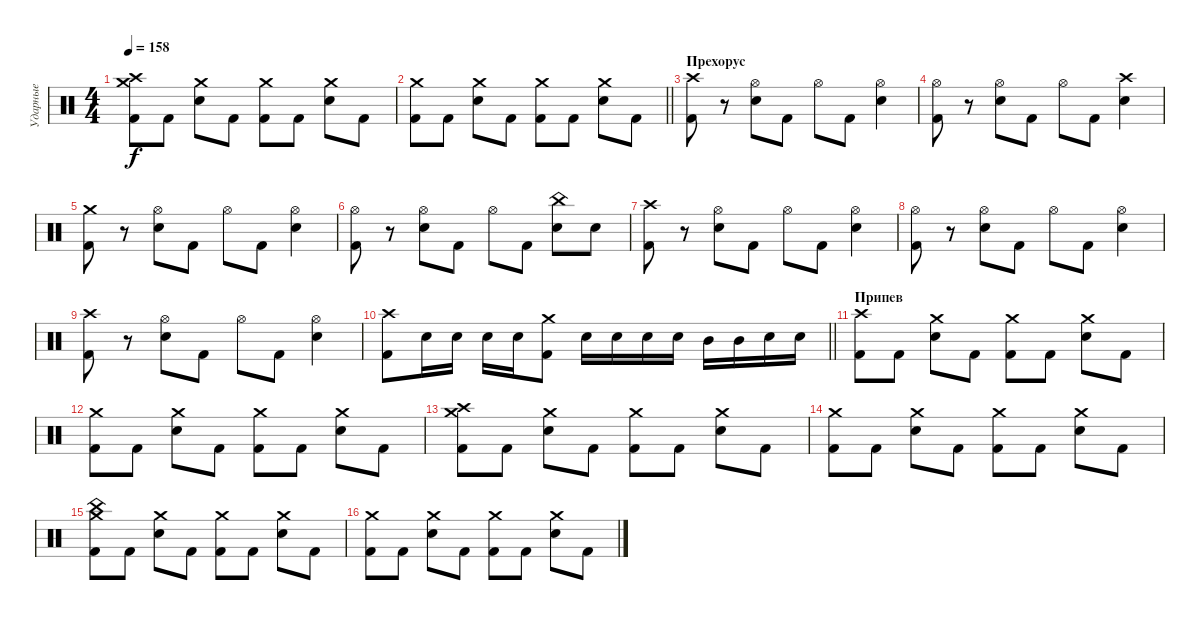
\track ("Ударные" "Ударные") {instrument percussion}
\staff {score}
\articulation defaults
\ts (4 4)
\tempo 158
\clef neutral
\ks c
("Crash medium (hit)" "Crash high (hit)" "Kick (hit) 2").8{dy f} "Kick (hit) 2".8 ("Crash medium (hit)" "Electric Snare (hit)").8 "Kick (hit) 2".8 ("Crash medium (hit)" "Kick (hit) 2").8 "Kick (hit) 2".8 ("Crash medium (hit)" "Electric Snare (hit)").8 "Kick (hit) 2".8 |
\barLineRight lightlight
("Crash medium (hit)" "Kick (hit) 2").8 "Kick (hit) 2".8 ("Crash medium (hit)" "Electric Snare (hit)").8 "Kick (hit) 2".8 ("Crash medium (hit)" "Kick (hit) 2").8 "Kick (hit) 2".8 ("Crash medium (hit)" "Electric Snare (hit)").8 "Kick (hit) 2".8 |
\section ("" "Прехорус")
("Crash high (hit)" "Kick (hit) 2").8 r.8 ("Hi-Hat (open)" "Electric Snare (hit)").8 "Kick (hit) 2".8 "Hi-Hat (open)".8 "Kick (hit) 2".8 ("Hi-Hat (open)" "Electric Snare (hit)").4 |
("Hi-Hat (open)" "Kick (hit) 2").8 r.8 ("Hi-Hat (open)" "Electric Snare (hit)").8 "Kick (hit) 2".8 "Hi-Hat (open)".8 "Kick (hit) 2".8 ("Crash high (hit)" "Electric Snare (hit)").4 |
("Crash medium (hit)" "Kick (hit) 2").8 r.8 ("Hi-Hat (open)" "Electric Snare (hit)").8 "Kick (hit) 2".8 "Hi-Hat (open)".8 "Kick (hit) 2".8 ("Hi-Hat (open)" "Electric Snare (hit)").4 |
("Hi-Hat (open)" "Kick (hit) 2").8 r.8 ("Hi-Hat (open)" "Electric Snare (hit)").8 "Kick (hit) 2".8 "Hi-Hat (open)".8 "Kick (hit) 2".8 ("China (hit)" "Electric Snare (hit)").8 "Electric Snare (hit)".8 |
("Crash high (hit)" "Kick (hit) 2").8 r.8 ("Hi-Hat (open)" "Electric Snare (hit)").8 "Kick (hit) 2".8 "Hi-Hat (open)".8 "Kick (hit) 2".8 ("Hi-Hat (open)" "Electric Snare (hit)").4 |
("Hi-Hat (open)" "Kick (hit) 2").8 r.8 ("Hi-Hat (open)" "Electric Snare (hit)").8 "Kick (hit) 2".8 "Hi-Hat (open)".8 "Kick (hit) 2".8 ("Hi-Hat (open)" "Electric Snare (hit)").4 |
("Crash high (hit)" "Kick (hit) 2").8 r.8 ("Hi-Hat (open)" "Electric Snare (hit)").8 "Kick (hit) 2".8 "Hi-Hat (open)".8 "Kick (hit) 2".8 ("Hi-Hat (open)" "Electric Snare (hit)").4 |
\barLineRight lightlight
("Crash high (hit)" "Kick (hit) 2").8 "Electric Snare (hit)".16 "Electric Snare (hit)".16 "Electric Snare (hit)".16 "Electric Snare (hit)".16 ("Crash medium (hit)" "Kick (hit) 2").8 "Electric Snare (hit)".16 "Electric Snare (hit)".16 "Electric Snare (hit)".16 "Electric Snare (hit)".16 "Mid Tom (hit)".16 "Mid Tom (hit)".16 "Electric Snare (hit)".16 "Electric Snare (hit)".16 |
\section ("" "Припев")
("Crash high (hit)" "Kick (hit) 2").8 "Kick (hit) 2".8 ("Crash medium (hit)" "Electric Snare (hit)").8 "Kick (hit) 2".8 ("Crash medium (hit)" "Kick (hit) 2").8 "Kick (hit) 2".8 ("Crash medium (hit)" "Electric Snare (hit)").8 "Kick (hit) 2".8 |
("Crash medium (hit)" "Kick (hit) 2").8 "Kick (hit) 2".8 ("Crash medium (hit)" "Electric Snare (hit)").8 "Kick (hit) 2".8 ("Crash medium (hit)" "Kick (hit) 2").8 "Kick (hit) 2".8 ("Crash medium (hit)" "Electric Snare (hit)").8 "Kick (hit) 2".8 |
("Crash medium (hit)" "Crash high (hit)" "Kick (hit) 2").8 "Kick (hit) 2".8 ("Crash medium (hit)" "Electric Snare (hit)").8 "Kick (hit) 2".8 ("Crash medium (hit)" "Kick (hit) 2").8 "Kick (hit) 2".8 ("Crash medium (hit)" "Electric Snare (hit)").8 "Kick (hit) 2".8 |
("Crash medium (hit)" "Kick (hit) 2").8 "Kick (hit) 2".8 ("Crash medium (hit)" "Electric Snare (hit)").8 "Kick (hit) 2".8 ("Crash medium (hit)" "Kick (hit) 2").8 "Kick (hit) 2".8 ("Crash medium (hit)" "Electric Snare (hit)").8 "Kick (hit) 2".8 |
("Crash medium (hit)" "China (hit)" "Kick (hit) 2").8 "Kick (hit) 2".8 ("Crash medium (hit)" "Electric Snare (hit)").8 "Kick (hit) 2".8 ("Crash medium (hit)" "Kick (hit) 2").8 "Kick (hit) 2".8 ("Crash medium (hit)" "Electric Snare (hit)").8 "Kick (hit) 2".8 |
("Crash medium (hit)" "Kick (hit) 2").8 "Kick (hit) 2".8 ("Crash medium (hit)" "Electric Snare (hit)").8 "Kick (hit) 2".8 ("Crash medium (hit)" "Kick (hit) 2").8 "Kick (hit) 2".8 ("Crash medium (hit)" "Electric Snare (hit)").8 "Kick (hit) 2".8
